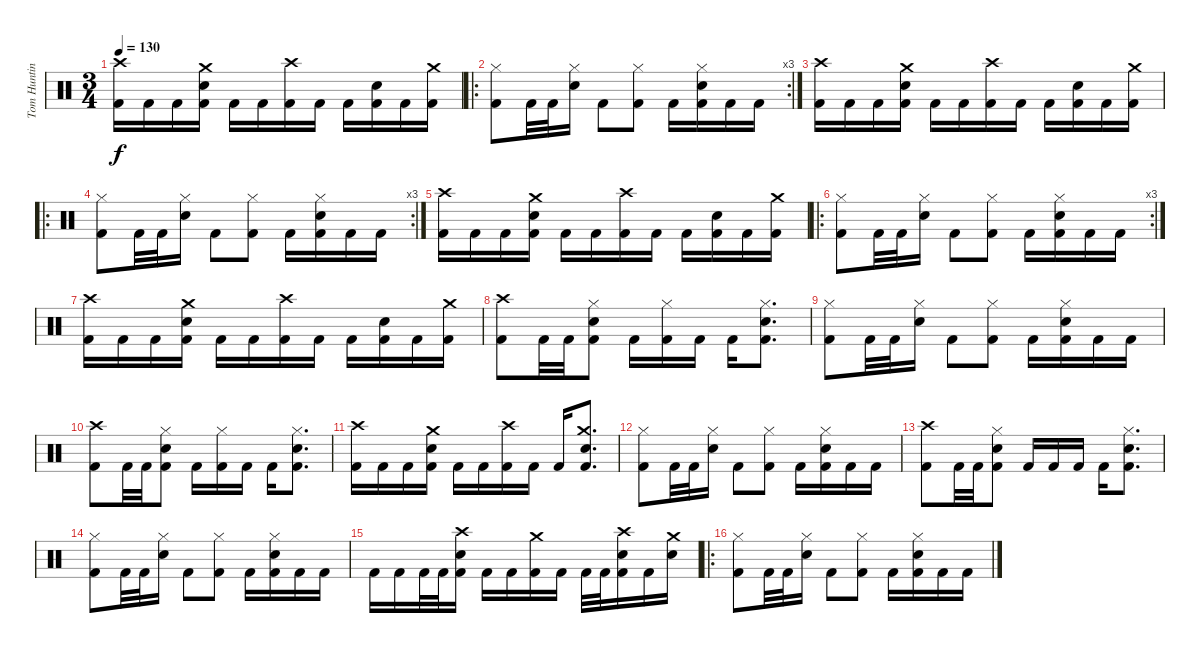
\track ("Tom Hunting" "Tom Huntin") {instrument percussion}
\staff {score}
\articulation defaults
\ts (3 4)
\tempo 130
\clef neutral
\ks c
("Crash high (hit)" "Kick (hit) 2").16{dy f} "Kick (hit) 2".16 "Kick (hit) 2".16 ("Crash medium (hit)" "Electric Snare (hit)" "Kick (hit) 2").16 "Kick (hit) 2".16 "Kick (hit) 2".16 ("Crash high (hit)" "Kick (hit) 2").16 "Kick (hit) 2".16 "Kick (hit) 2".16 ("Electric Snare (hit)" "Kick (hit) 2").16 "Kick (hit) 2".16 ("Crash medium (hit)" "Kick (hit) 2").16 |
\ro
\rc 3
("Hi-Hat (closed)" "Kick (hit) 2").8 "Kick (hit) 2".32 "Kick (hit) 2".32 ("Hi-Hat (closed)" "Electric Snare (hit)").16 "Kick (hit) 2".8 ("Hi-Hat (closed)" "Kick (hit) 2").8 "Kick (hit) 2".16 ("Hi-Hat (closed)" "Electric Snare (hit)" "Kick (hit) 2").16 "Kick (hit) 2".16 "Kick (hit) 2".16 |
("Crash high (hit)" "Kick (hit) 2").16 "Kick (hit) 2".16 "Kick (hit) 2".16 ("Crash medium (hit)" "Electric Snare (hit)" "Kick (hit) 2").16 "Kick (hit) 2".16 "Kick (hit) 2".16 ("Crash high (hit)" "Kick (hit) 2").16 "Kick (hit) 2".16 "Kick (hit) 2".16 ("Electric Snare (hit)" "Kick (hit) 2").16 "Kick (hit) 2".16 ("Crash medium (hit)" "Kick (hit) 2").16 |
\ro
\rc 3
("Hi-Hat (closed)" "Kick (hit) 2").8 "Kick (hit) 2".32 "Kick (hit) 2".32 ("Hi-Hat (closed)" "Electric Snare (hit)").16 "Kick (hit) 2".8 ("Hi-Hat (closed)" "Kick (hit) 2").8 "Kick (hit) 2".16 ("Hi-Hat (closed)" "Electric Snare (hit)" "Kick (hit) 2").16 "Kick (hit) 2".16 "Kick (hit) 2".16 |
("Crash high (hit)" "Kick (hit) 2").16 "Kick (hit) 2".16 "Kick (hit) 2".16 ("Crash medium (hit)" "Electric Snare (hit)" "Kick (hit) 2").16 "Kick (hit) 2".16 "Kick (hit) 2".16 ("Crash high (hit)" "Kick (hit) 2").16 "Kick (hit) 2".16 "Kick (hit) 2".16 ("Electric Snare (hit)" "Kick (hit) 2").16 "Kick (hit) 2".16 ("Crash medium (hit)" "Kick (hit) 2").16 |
\ro
\rc 3
("Hi-Hat (closed)" "Kick (hit) 2").8 "Kick (hit) 2".32 "Kick (hit) 2".32 ("Hi-Hat (closed)" "Electric Snare (hit)").16 "Kick (hit) 2".8 ("Hi-Hat (closed)" "Kick (hit) 2").8 "Kick (hit) 2".16 ("Hi-Hat (closed)" "Electric Snare (hit)" "Kick (hit) 2").16 "Kick (hit) 2".16 "Kick (hit) 2".16 |
("Crash high (hit)" "Kick (hit) 2").16 "Kick (hit) 2".16 "Kick (hit) 2".16 ("Crash medium (hit)" "Electric Snare (hit)" "Kick (hit) 2").16 "Kick (hit) 2".16 "Kick (hit) 2".16 ("Crash high (hit)" "Kick (hit) 2").16 "Kick (hit) 2".16 "Kick (hit) 2".16 ("Electric Snare (hit)" "Kick (hit) 2").16 "Kick (hit) 2".16 ("Crash medium (hit)" "Kick (hit) 2").16 |
("Crash high (hit)" "Kick (hit) 2").8 "Kick (hit) 2".32 "Kick (hit) 2".32 ("Hi-Hat (closed)" "Electric Snare (hit)" "Kick (hit) 2").8 "Kick (hit) 2".16 ("Hi-Hat (closed)" "Kick (hit) 2").16 "Kick (hit) 2".16 "Kick (hit) 2".16 ("Hi-Hat (closed)" "Electric Snare (hit)" "Kick (hit) 2").8{d} |
("Hi-Hat (closed)" "Kick (hit) 2").8 "Kick (hit) 2".32 "Kick (hit) 2".32 ("Hi-Hat (closed)" "Electric Snare (hit)").16 "Kick (hit) 2".8 ("Hi-Hat (closed)" "Kick (hit) 2").8 "Kick (hit) 2".16 ("Hi-Hat (closed)" "Electric Snare (hit)" "Kick (hit) 2").16 "Kick (hit) 2".16 "Kick (hit) 2".16 |
("Crash high (hit)" "Kick (hit) 2").8 "Kick (hit) 2".32 "Kick (hit) 2".32 ("Hi-Hat (closed)" "Electric Snare (hit)" "Kick (hit) 2").8 "Kick (hit) 2".16 ("Hi-Hat (closed)" "Kick (hit) 2").16 "Kick (hit) 2".16 "Kick (hit) 2".16 ("Hi-Hat (closed)" "Electric Snare (hit)" "Kick (hit) 2").8{d} |
("Crash high (hit)" "Kick (hit) 2").16 "Kick (hit) 2".16 "Kick (hit) 2".16 ("Crash medium (hit)" "Electric Snare (hit)" "Kick (hit) 2").16 "Kick (hit) 2".16 "Kick (hit) 2".16 ("Crash high (hit)" "Kick (hit) 2").16 "Kick (hit) 2".16 "Kick (hit) 2".16 ("Crash medium (hit)" "Electric Snare (hit)" "Kick (hit) 2").8{d} |
("Hi-Hat (closed)" "Kick (hit) 2").8 "Kick (hit) 2".32 "Kick (hit) 2".32 ("Hi-Hat (closed)" "Electric Snare (hit)").16 "Kick (hit) 2".8 ("Hi-Hat (closed)" "Kick (hit) 2").8 "Kick (hit) 2".16 ("Hi-Hat (closed)" "Electric Snare (hit)" "Kick (hit) 2").16 "Kick (hit) 2".16 "Kick (hit) 2".16 |
("Crash high (hit)" "Kick (hit) 2").8 "Kick (hit) 2".32 "Kick (hit) 2".32 ("Hi-Hat (closed)" "Electric Snare (hit)" "Kick (hit) 2").8 "Kick (hit) 2".16 "Kick (hit) 2".16 "Kick (hit) 2".16 "Kick (hit) 2".16 ("Hi-Hat (closed)" "Electric Snare (hit)" "Kick (hit) 2").8{d} |
("Hi-Hat (closed)" "Kick (hit) 2").8 "Kick (hit) 2".32 "Kick (hit) 2".32 ("Hi-Hat (closed)" "Electric Snare (hit)").16 "Kick (hit) 2".8 ("Hi-Hat (closed)" "Kick (hit) 2").8 "Kick (hit) 2".16 ("Hi-Hat (closed)" "Electric Snare (hit)" "Kick (hit) 2").16 "Kick (hit) 2".16 "Kick (hit) 2".16 |
"Kick (hit) 2".16 "Kick (hit) 2".16 "Kick (hit) 2".32 "Kick (hit) 2".32 ("Crash high (hit)" "Electric Snare (hit)" "Kick (hit) 2").16 "Kick (hit) 2".16 "Kick (hit) 2".16 ("Crash medium (hit)" "Kick (hit) 2").16 "Kick (hit) 2".16 "Kick (hit) 2".32 "Kick (hit) 2".32 ("Crash high (hit)" "Electric Snare (hit)" "Kick (hit) 2").16 "Kick (hit) 2".16 ("Crash medium (hit)" "Electric Snare (hit)").16 |
\ro
("Hi-Hat (closed)" "Kick (hit) 2").8 "Kick (hit) 2".32 "Kick (hit) 2".32 ("Hi-Hat (closed)" "Electric Snare (hit)").16 "Kick (hit) 2".8 ("Hi-Hat (closed)" "Kick (hit) 2").8 "Kick (hit) 2".16 ("Hi-Hat (closed)" "Electric Snare (hit)" "Kick (hit) 2").16 "Kick (hit) 2".16 "Kick (hit) 2".16
